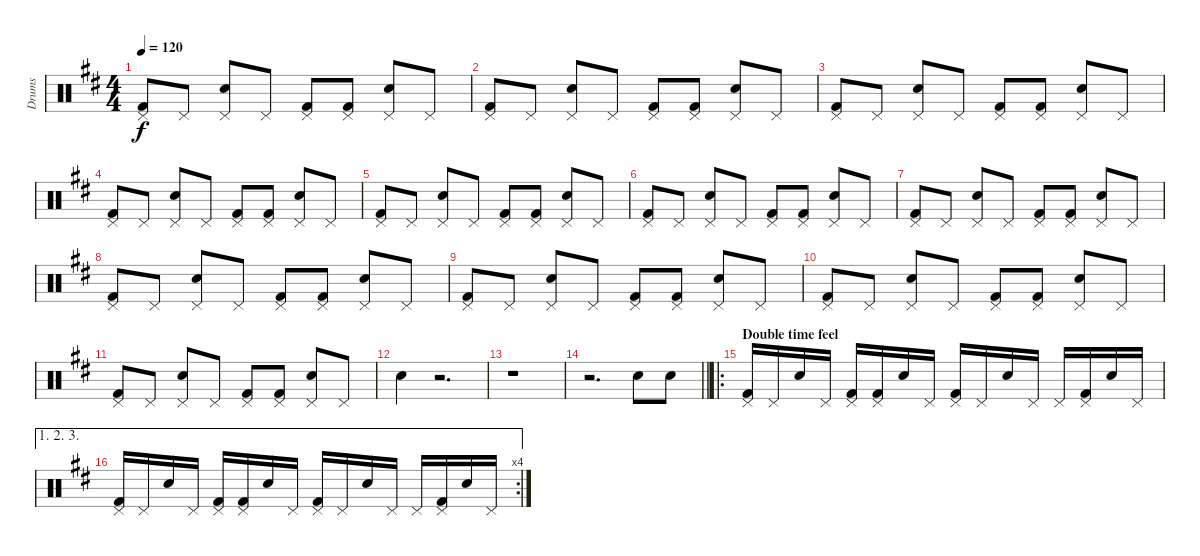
\track ("Drums" "Drums") {instrument percussion}
\staff {score}
\articulation defaults
\ts (4 4)
\tempo 120
\clef neutral
\ks d
("Pedal Hi-Hat (hit)" "Kick (hit) 2").8{dy f} "Pedal Hi-Hat (hit)".8 ("Pedal Hi-Hat (hit)" "Electric Snare (hit)").8 "Pedal Hi-Hat (hit)".8 ("Pedal Hi-Hat (hit)" "Kick (hit) 2").8 ("Pedal Hi-Hat (hit)" "Kick (hit) 2").8 ("Pedal Hi-Hat (hit)" "Electric Snare (hit)").8 "Pedal Hi-Hat (hit)".8 |
("Pedal Hi-Hat (hit)" "Kick (hit) 2").8 "Pedal Hi-Hat (hit)".8 ("Pedal Hi-Hat (hit)" "Electric Snare (hit)").8 "Pedal Hi-Hat (hit)".8 ("Pedal Hi-Hat (hit)" "Kick (hit) 2").8 ("Pedal Hi-Hat (hit)" "Kick (hit) 2").8 ("Pedal Hi-Hat (hit)" "Electric Snare (hit)").8 "Pedal Hi-Hat (hit)".8 |
("Pedal Hi-Hat (hit)" "Kick (hit) 2").8 "Pedal Hi-Hat (hit)".8 ("Pedal Hi-Hat (hit)" "Electric Snare (hit)").8 "Pedal Hi-Hat (hit)".8 ("Pedal Hi-Hat (hit)" "Kick (hit) 2").8 ("Pedal Hi-Hat (hit)" "Kick (hit) 2").8 ("Pedal Hi-Hat (hit)" "Electric Snare (hit)").8 "Pedal Hi-Hat (hit)".8 |
("Pedal Hi-Hat (hit)" "Kick (hit) 2").8 "Pedal Hi-Hat (hit)".8 ("Pedal Hi-Hat (hit)" "Electric Snare (hit)").8 "Pedal Hi-Hat (hit)".8 ("Pedal Hi-Hat (hit)" "Kick (hit) 2").8 ("Pedal Hi-Hat (hit)" "Kick (hit) 2").8 ("Pedal Hi-Hat (hit)" "Electric Snare (hit)").8 "Pedal Hi-Hat (hit)".8 |
("Pedal Hi-Hat (hit)" "Kick (hit) 2").8 "Pedal Hi-Hat (hit)".8 ("Pedal Hi-Hat (hit)" "Electric Snare (hit)").8 "Pedal Hi-Hat (hit)".8 ("Pedal Hi-Hat (hit)" "Kick (hit) 2").8 ("Pedal Hi-Hat (hit)" "Kick (hit) 2").8 ("Pedal Hi-Hat (hit)" "Electric Snare (hit)").8 "Pedal Hi-Hat (hit)".8 |
("Pedal Hi-Hat (hit)" "Kick (hit) 2").8 "Pedal Hi-Hat (hit)".8 ("Pedal Hi-Hat (hit)" "Electric Snare (hit)").8 "Pedal Hi-Hat (hit)".8 ("Pedal Hi-Hat (hit)" "Kick (hit) 2").8 ("Pedal Hi-Hat (hit)" "Kick (hit) 2").8 ("Pedal Hi-Hat (hit)" "Electric Snare (hit)").8 "Pedal Hi-Hat (hit)".8 |
("Pedal Hi-Hat (hit)" "Kick (hit) 2").8 "Pedal Hi-Hat (hit)".8 ("Pedal Hi-Hat (hit)" "Electric Snare (hit)").8 "Pedal Hi-Hat (hit)".8 ("Pedal Hi-Hat (hit)" "Kick (hit) 2").8 ("Pedal Hi-Hat (hit)" "Kick (hit) 2").8 ("Pedal Hi-Hat (hit)" "Electric Snare (hit)").8 "Pedal Hi-Hat (hit)".8 |
("Pedal Hi-Hat (hit)" "Kick (hit) 2").8 "Pedal Hi-Hat (hit)".8 ("Pedal Hi-Hat (hit)" "Electric Snare (hit)").8 "Pedal Hi-Hat (hit)".8 ("Pedal Hi-Hat (hit)" "Kick (hit) 2").8 ("Pedal Hi-Hat (hit)" "Kick (hit) 2").8 ("Pedal Hi-Hat (hit)" "Electric Snare (hit)").8 "Pedal Hi-Hat (hit)".8 |
("Pedal Hi-Hat (hit)" "Kick (hit) 2").8 "Pedal Hi-Hat (hit)".8 ("Pedal Hi-Hat (hit)" "Electric Snare (hit)").8 "Pedal Hi-Hat (hit)".8 ("Pedal Hi-Hat (hit)" "Kick (hit) 2").8 ("Pedal Hi-Hat (hit)" "Kick (hit) 2").8 ("Pedal Hi-Hat (hit)" "Electric Snare (hit)").8 "Pedal Hi-Hat (hit)".8 |
("Pedal Hi-Hat (hit)" "Kick (hit) 2").8 "Pedal Hi-Hat (hit)".8 ("Pedal Hi-Hat (hit)" "Electric Snare (hit)").8 "Pedal Hi-Hat (hit)".8 ("Pedal Hi-Hat (hit)" "Kick (hit) 2").8 ("Pedal Hi-Hat (hit)" "Kick (hit) 2").8 ("Pedal Hi-Hat (hit)" "Electric Snare (hit)").8 "Pedal Hi-Hat (hit)".8 |
("Pedal Hi-Hat (hit)" "Kick (hit) 2").8 "Pedal Hi-Hat (hit)".8 ("Pedal Hi-Hat (hit)" "Electric Snare (hit)").8 "Pedal Hi-Hat (hit)".8 ("Pedal Hi-Hat (hit)" "Kick (hit) 2").8 ("Pedal Hi-Hat (hit)" "Kick (hit) 2").8 ("Pedal Hi-Hat (hit)" "Electric Snare (hit)").8 "Pedal Hi-Hat (hit)".8 |
"Electric Snare (hit)".4 r.2{d} |
r.1 |
\barLineRight lightlight
r.2{d} "Electric Snare (hit)".8 "Electric Snare (hit)".8 |
\ro
\section ("" "Double time feel")
("Pedal Hi-Hat (hit)" "Kick (hit) 2").16 "Pedal Hi-Hat (hit)".16 "Electric Snare (hit)".16 "Pedal Hi-Hat (hit)".16 ("Pedal Hi-Hat (hit)" "Kick (hit) 2").16 ("Pedal Hi-Hat (hit)" "Kick (hit) 2").16 "Electric Snare (hit)".16 "Pedal Hi-Hat (hit)".16 ("Pedal Hi-Hat (hit)" "Kick (hit) 2").16 "Pedal Hi-Hat (hit)".16 "Electric Snare (hit)".16 "Pedal Hi-Hat (hit)".16 "Pedal Hi-Hat (hit)".16 ("Pedal Hi-Hat (hit)" "Kick (hit) 2").16 "Electric Snare (hit)".16 "Pedal Hi-Hat (hit)".16 |
\ae (1 2 3)
\rc 4
("Pedal Hi-Hat (hit)" "Kick (hit) 2").16 "Pedal Hi-Hat (hit)".16 "Electric Snare (hit)".16 "Pedal Hi-Hat (hit)".16 ("Pedal Hi-Hat (hit)" "Kick (hit) 2").16 ("Pedal Hi-Hat (hit)" "Kick (hit) 2").16 "Electric Snare (hit)".16 "Pedal Hi-Hat (hit)".16 ("Pedal Hi-Hat (hit)" "Kick (hit) 2").16 "Pedal Hi-Hat (hit)".16 "Electric Snare (hit)".16 "Pedal Hi-Hat (hit)".16 "Pedal Hi-Hat (hit)".16 ("Pedal Hi-Hat (hit)" "Kick (hit) 2").16 "Electric Snare (hit)".16 "Pedal Hi-Hat (hit)".16
